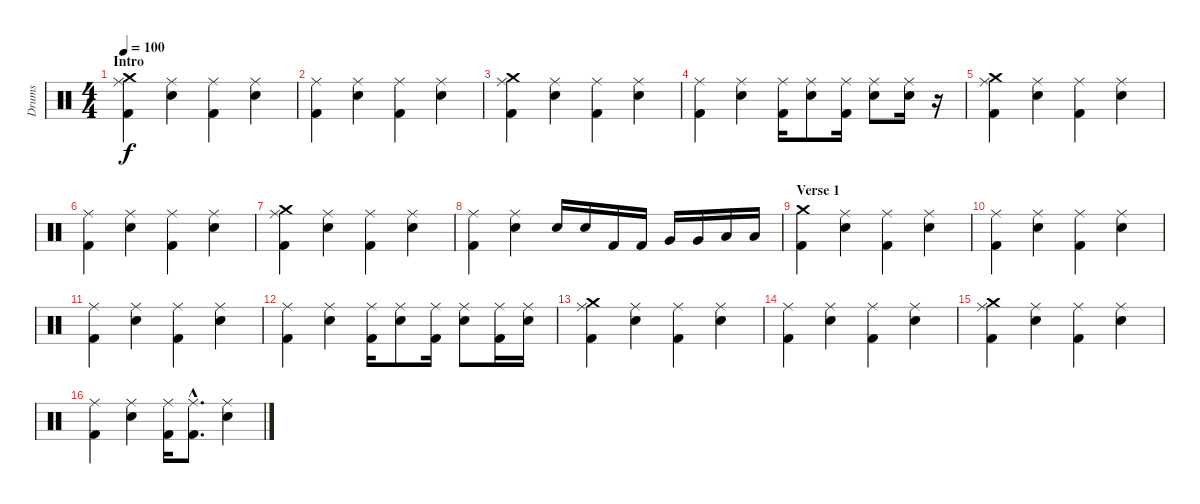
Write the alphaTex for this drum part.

\track ("Drums" "Drums") {instrument percussion}
\staff {score}
\articulation defaults
\ts (4 4)
\section ("" "Intro")
\tempo 100
\clef neutral
\ks c
("Kick (hit) 2" "Ride (middle)" "Crash medium (hit)").4{dy f} ("Snare (hit) 2" "Ride (middle)").4 ("Kick (hit) 2" "Ride (middle)").4 ("Snare (hit) 2" "Ride (middle)").4 |
("Kick (hit) 2" "Ride (middle)").4 ("Snare (hit) 2" "Ride (middle)").4 ("Kick (hit) 2" "Ride (middle)").4 ("Snare (hit) 2" "Ride (middle)").4 |
("Kick (hit) 2" "Ride (middle)" "Crash medium (hit)").4 ("Snare (hit) 2" "Ride (middle)").4 ("Kick (hit) 2" "Ride (middle)").4 ("Snare (hit) 2" "Ride (middle)").4 |
("Kick (hit) 2" "Ride (middle)").4 ("Snare (hit) 2" "Ride (middle)").4 ("Kick (hit) 2" "Ride (middle)").16 ("Snare (hit) 2" "Ride (middle)").8 ("Kick (hit) 2" "Ride (middle)").16 ("Snare (hit) 2" "Ride (middle)").8 ("Snare (hit) 2" "Ride (middle)").16 r.16 |
("Kick (hit) 2" "Ride (middle)" "Crash medium (hit)").4 ("Snare (hit) 2" "Ride (middle)").4 ("Kick (hit) 2" "Ride (middle)").4 ("Snare (hit) 2" "Ride (middle)").4 |
("Kick (hit) 2" "Ride (middle)").4 ("Snare (hit) 2" "Ride (middle)").4 ("Kick (hit) 2" "Ride (middle)").4 ("Snare (hit) 2" "Ride (middle)").4 |
("Kick (hit) 2" "Ride (middle)" "Crash medium (hit)").4 ("Snare (hit) 2" "Ride (middle)").4 ("Kick (hit) 2" "Ride (middle)").4 ("Snare (hit) 2" "Ride (middle)").4 |
("Kick (hit) 2" "Ride (middle)").4 ("Snare (hit) 2" "Ride (middle)").4 "Snare (hit) 2".16 "Snare (hit) 2".16 "Kick (hit) 2".16 "Kick (hit) 2".16 "Very Low Tom (hit)".16 "Very Low Tom (hit)".16 "Low Tom (hit)".16 "Low Tom (hit)".16 |
\section ("" "Verse 1")
("Crash medium (hit)" "Kick (hit) 2").4 ("Snare (hit) 2" "Ride (middle)").4 ("Kick (hit) 2" "Ride (middle)").4 ("Snare (hit) 2" "Ride (middle)").4 |
("Kick (hit) 2" "Ride (middle)").4 ("Snare (hit) 2" "Ride (middle)").4 ("Kick (hit) 2" "Ride (middle)").4 ("Snare (hit) 2" "Ride (middle)").4 |
("Kick (hit) 2" "Ride (middle)").4 ("Snare (hit) 2" "Ride (middle)").4 ("Kick (hit) 2" "Ride (middle)").4 ("Snare (hit) 2" "Ride (middle)").4 |
("Kick (hit) 2" "Ride (middle)").4 ("Snare (hit) 2" "Ride (middle)").4 ("Kick (hit) 2" "Ride (middle)").16 ("Snare (hit) 2" "Ride (middle)").8 ("Kick (hit) 2" "Ride (middle)").16 ("Snare (hit) 2" "Ride (middle)").8 ("Kick (hit) 2" "Ride (middle)").16 ("Snare (hit) 2" "Ride (middle)").16 |
("Kick (hit) 2" "Ride (middle)" "Crash medium (hit)").4 ("Snare (hit) 2" "Ride (middle)").4 ("Kick (hit) 2" "Ride (middle)").4 ("Snare (hit) 2" "Ride (middle)").4 |
("Kick (hit) 2" "Ride (middle)").4 ("Snare (hit) 2" "Ride (middle)").4 ("Kick (hit) 2" "Ride (middle)").4 ("Snare (hit) 2" "Ride (middle)").4 |
("Kick (hit) 2" "Ride (middle)" "Crash medium (hit)").4 ("Snare (hit) 2" "Ride (middle)").4 ("Kick (hit) 2" "Ride (middle)").4 ("Snare (hit) 2" "Ride (middle)").4 |
("Kick (hit) 2" "Ride (middle)").4 ("Snare (hit) 2" "Ride (middle)").4 ("Kick (hit) 2" "Ride (middle)").16 ("Kick (hit) 2"{hac} "Ride (middle)"{hac}).8{d} ("Snare (hit) 2" "Ride (middle)").4
